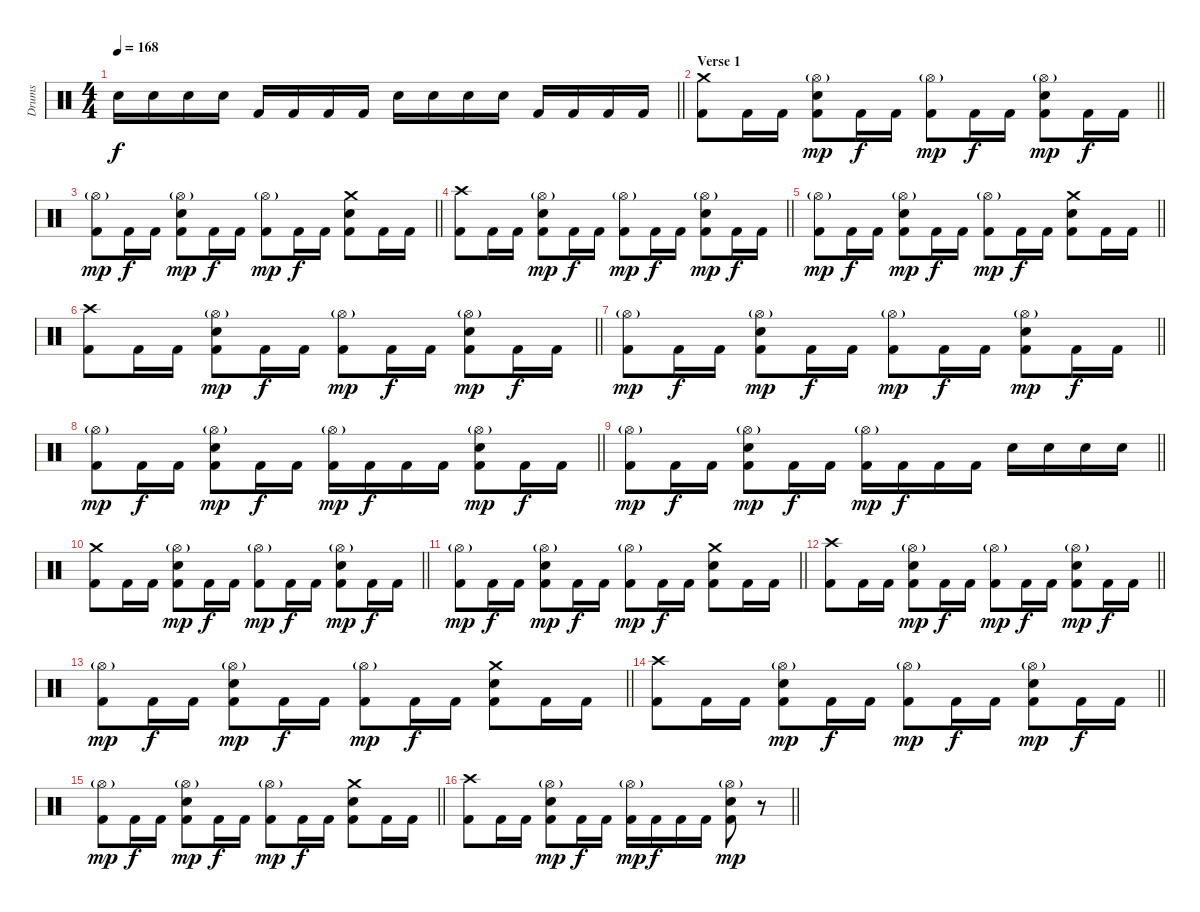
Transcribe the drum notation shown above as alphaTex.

\track ("Drums" "Drums") {instrument percussion}
\staff {score}
\articulation defaults
\ts (4 4)
\tempo 168
\clef neutral
\barLineRight lightlight
\ks c "Snare (hit) 2".16{dy f} "Snare (hit) 2".16 "Snare (hit) 2".16 "Snare (hit) 2".16 "Kick (hit) 2".16 "Kick (hit) 2".16 "Kick (hit) 2".16 "Kick (hit) 2".16 "Snare (hit) 2".16 "Snare (hit) 2".16 "Snare (hit) 2".16 "Snare (hit) 2".16 "Kick (hit) 2".16 "Kick (hit) 2".16 "Kick (hit) 2".16 "Kick (hit) 2".16
|
\section ("" "Verse 1")
\barLineRight lightlight
("Crash medium (hit)" "Kick (hit) 2").8 "Kick (hit) 2".16 "Kick (hit) 2".16 ("Snare (hit) 2" "Hi-Hat (open)"{g} "Kick (hit) 2").8{dy mp} "Kick (hit) 2".16{dy f} "Kick (hit) 2".16 ("Hi-Hat (open)"{g} "Kick (hit) 2").8{dy mp} "Kick (hit) 2".16{dy f} "Kick (hit) 2".16 ("Snare (hit) 2" "Hi-Hat (open)"{g} "Kick (hit) 2").8{dy mp} "Kick (hit) 2".16{dy f} "Kick (hit) 2".16 |
\barLineRight lightlight
("Hi-Hat (open)"{g} "Kick (hit) 2").8{dy mp} "Kick (hit) 2".16{dy f} "Kick (hit) 2".16 ("Snare (hit) 2" "Hi-Hat (open)"{g} "Kick (hit) 2").8{dy mp} "Kick (hit) 2".16{dy f} "Kick (hit) 2".16 ("Hi-Hat (open)"{g} "Kick (hit) 2").8{dy mp} "Kick (hit) 2".16{dy f} "Kick (hit) 2".16 ("Crash medium (hit)" "Snare (hit) 2" "Kick (hit) 2").8 "Kick (hit) 2".16 "Kick (hit) 2".16 |
\barLineRight lightlight
("Crash high (hit)" "Kick (hit) 2").8 "Kick (hit) 2".16 "Kick (hit) 2".16 ("Snare (hit) 2" "Hi-Hat (open)"{g} "Kick (hit) 2").8{dy mp} "Kick (hit) 2".16{dy f} "Kick (hit) 2".16 ("Hi-Hat (open)"{g} "Kick (hit) 2").8{dy mp} "Kick (hit) 2".16{dy f} "Kick (hit) 2".16 ("Snare (hit) 2" "Hi-Hat (open)"{g} "Kick (hit) 2").8{dy mp} "Kick (hit) 2".16{dy f} "Kick (hit) 2".16 |
\barLineRight lightlight
("Hi-Hat (open)"{g} "Kick (hit) 2").8{dy mp} "Kick (hit) 2".16{dy f} "Kick (hit) 2".16 ("Snare (hit) 2" "Hi-Hat (open)"{g} "Kick (hit) 2").8{dy mp} "Kick (hit) 2".16{dy f} "Kick (hit) 2".16 ("Hi-Hat (open)"{g} "Kick (hit) 2").8{dy mp} "Kick (hit) 2".16{dy f} "Kick (hit) 2".16 ("Crash medium (hit)" "Snare (hit) 2" "Kick (hit) 2").8 "Kick (hit) 2".16 "Kick (hit) 2".16 |
\barLineRight lightlight
("Crash high (hit)" "Kick (hit) 2").8 "Kick (hit) 2".16 "Kick (hit) 2".16 ("Snare (hit) 2" "Hi-Hat (open)"{g} "Kick (hit) 2").8{dy mp} "Kick (hit) 2".16{dy f} "Kick (hit) 2".16 ("Hi-Hat (open)"{g} "Kick (hit) 2").8{dy mp} "Kick (hit) 2".16{dy f} "Kick (hit) 2".16 ("Snare (hit) 2" "Hi-Hat (open)"{g} "Kick (hit) 2").8{dy mp} "Kick (hit) 2".16{dy f} "Kick (hit) 2".16 |
\barLineRight lightlight
("Hi-Hat (open)"{g} "Kick (hit) 2").8{dy mp} "Kick (hit) 2".16{dy f} "Kick (hit) 2".16 ("Snare (hit) 2" "Hi-Hat (open)"{g} "Kick (hit) 2").8{dy mp} "Kick (hit) 2".16{dy f} "Kick (hit) 2".16 ("Hi-Hat (open)"{g} "Kick (hit) 2").8{dy mp} "Kick (hit) 2".16{dy f} "Kick (hit) 2".16 ("Snare (hit) 2" "Hi-Hat (open)"{g} "Kick (hit) 2").8{dy mp} "Kick (hit) 2".16{dy f} "Kick (hit) 2".16 |
\barLineRight lightlight
("Hi-Hat (open)"{g} "Kick (hit) 2").8{dy mp} "Kick (hit) 2".16{dy f} "Kick (hit) 2".16 ("Snare (hit) 2" "Hi-Hat (open)"{g} "Kick (hit) 2").8{dy mp} "Kick (hit) 2".16{dy f} "Kick (hit) 2".16 ("Hi-Hat (open)"{g} "Kick (hit) 2").16{dy mp} "Kick (hit) 2".16{dy f} "Kick (hit) 2".16 "Kick (hit) 2".16 ("Snare (hit) 2" "Hi-Hat (open)"{g} "Kick (hit) 2").8{dy mp} "Kick (hit) 2".16{dy f} "Kick (hit) 2".16 |
\barLineRight lightlight
("Hi-Hat (open)"{g} "Kick (hit) 2").8{dy mp} "Kick (hit) 2".16{dy f} "Kick (hit) 2".16 ("Snare (hit) 2" "Hi-Hat (open)"{g} "Kick (hit) 2").8{dy mp} "Kick (hit) 2".16{dy f} "Kick (hit) 2".16 ("Hi-Hat (open)"{g} "Kick (hit) 2").16{dy mp} "Kick (hit) 2".16{dy f} "Kick (hit) 2".16 "Kick (hit) 2".16 "Snare (hit) 2".16 "Snare (hit) 2".16 "Snare (hit) 2".16 "Snare (hit) 2".16 |
\barLineRight lightlight
("Crash medium (hit)" "Kick (hit) 2").8 "Kick (hit) 2".16 "Kick (hit) 2".16 ("Snare (hit) 2" "Hi-Hat (open)"{g} "Kick (hit) 2").8{dy mp} "Kick (hit) 2".16{dy f} "Kick (hit) 2".16 ("Hi-Hat (open)"{g} "Kick (hit) 2").8{dy mp} "Kick (hit) 2".16{dy f} "Kick (hit) 2".16 ("Snare (hit) 2" "Hi-Hat (open)"{g} "Kick (hit) 2").8{dy mp} "Kick (hit) 2".16{dy f} "Kick (hit) 2".16 |
\barLineRight lightlight
("Hi-Hat (open)"{g} "Kick (hit) 2").8{dy mp} "Kick (hit) 2".16{dy f} "Kick (hit) 2".16 ("Snare (hit) 2" "Hi-Hat (open)"{g} "Kick (hit) 2").8{dy mp} "Kick (hit) 2".16{dy f} "Kick (hit) 2".16 ("Hi-Hat (open)"{g} "Kick (hit) 2").8{dy mp} "Kick (hit) 2".16{dy f} "Kick (hit) 2".16 ("Crash medium (hit)" "Snare (hit) 2" "Kick (hit) 2").8 "Kick (hit) 2".16 "Kick (hit) 2".16 |
\barLineRight lightlight
("Crash high (hit)" "Kick (hit) 2").8 "Kick (hit) 2".16 "Kick (hit) 2".16 ("Snare (hit) 2" "Hi-Hat (open)"{g} "Kick (hit) 2").8{dy mp} "Kick (hit) 2".16{dy f} "Kick (hit) 2".16 ("Hi-Hat (open)"{g} "Kick (hit) 2").8{dy mp} "Kick (hit) 2".16{dy f} "Kick (hit) 2".16 ("Snare (hit) 2" "Hi-Hat (open)"{g} "Kick (hit) 2").8{dy mp} "Kick (hit) 2".16{dy f} "Kick (hit) 2".16 |
\barLineRight lightlight
("Hi-Hat (open)"{g} "Kick (hit) 2").8{dy mp} "Kick (hit) 2".16{dy f} "Kick (hit) 2".16 ("Snare (hit) 2" "Hi-Hat (open)"{g} "Kick (hit) 2").8{dy mp} "Kick (hit) 2".16{dy f} "Kick (hit) 2".16 ("Hi-Hat (open)"{g} "Kick (hit) 2").8{dy mp} "Kick (hit) 2".16{dy f} "Kick (hit) 2".16 ("Crash medium (hit)" "Snare (hit) 2" "Kick (hit) 2").8 "Kick (hit) 2".16 "Kick (hit) 2".16 |
\barLineRight lightlight
("Crash high (hit)" "Kick (hit) 2").8 "Kick (hit) 2".16 "Kick (hit) 2".16 ("Snare (hit) 2" "Hi-Hat (open)"{g} "Kick (hit) 2").8{dy mp} "Kick (hit) 2".16{dy f} "Kick (hit) 2".16 ("Hi-Hat (open)"{g} "Kick (hit) 2").8{dy mp} "Kick (hit) 2".16{dy f} "Kick (hit) 2".16 ("Snare (hit) 2" "Hi-Hat (open)"{g} "Kick (hit) 2").8{dy mp} "Kick (hit) 2".16{dy f} "Kick (hit) 2".16 |
\barLineRight lightlight
("Hi-Hat (open)"{g} "Kick (hit) 2").8{dy mp} "Kick (hit) 2".16{dy f} "Kick (hit) 2".16 ("Snare (hit) 2" "Hi-Hat (open)"{g} "Kick (hit) 2").8{dy mp} "Kick (hit) 2".16{dy f} "Kick (hit) 2".16 ("Hi-Hat (open)"{g} "Kick (hit) 2").8{dy mp} "Kick (hit) 2".16{dy f} "Kick (hit) 2".16 ("Crash medium (hit)" "Snare (hit) 2" "Kick (hit) 2").8 "Kick (hit) 2".16 "Kick (hit) 2".16 |
\barLineRight lightlight
("Crash high (hit)" "Kick (hit) 2").8 "Kick (hit) 2".16 "Kick (hit) 2".16 ("Snare (hit) 2" "Hi-Hat (open)"{g} "Kick (hit) 2").8{dy mp} "Kick (hit) 2".16{dy f} "Kick (hit) 2".16 ("Hi-Hat (open)"{g} "Kick (hit) 2").16{dy mp} "Kick (hit) 2".16{dy f} "Kick (hit) 2".16 "Kick (hit) 2".16 ("Snare (hit) 2" "Hi-Hat (open)"{g} "Kick (hit) 2").8{dy mp} r.8
